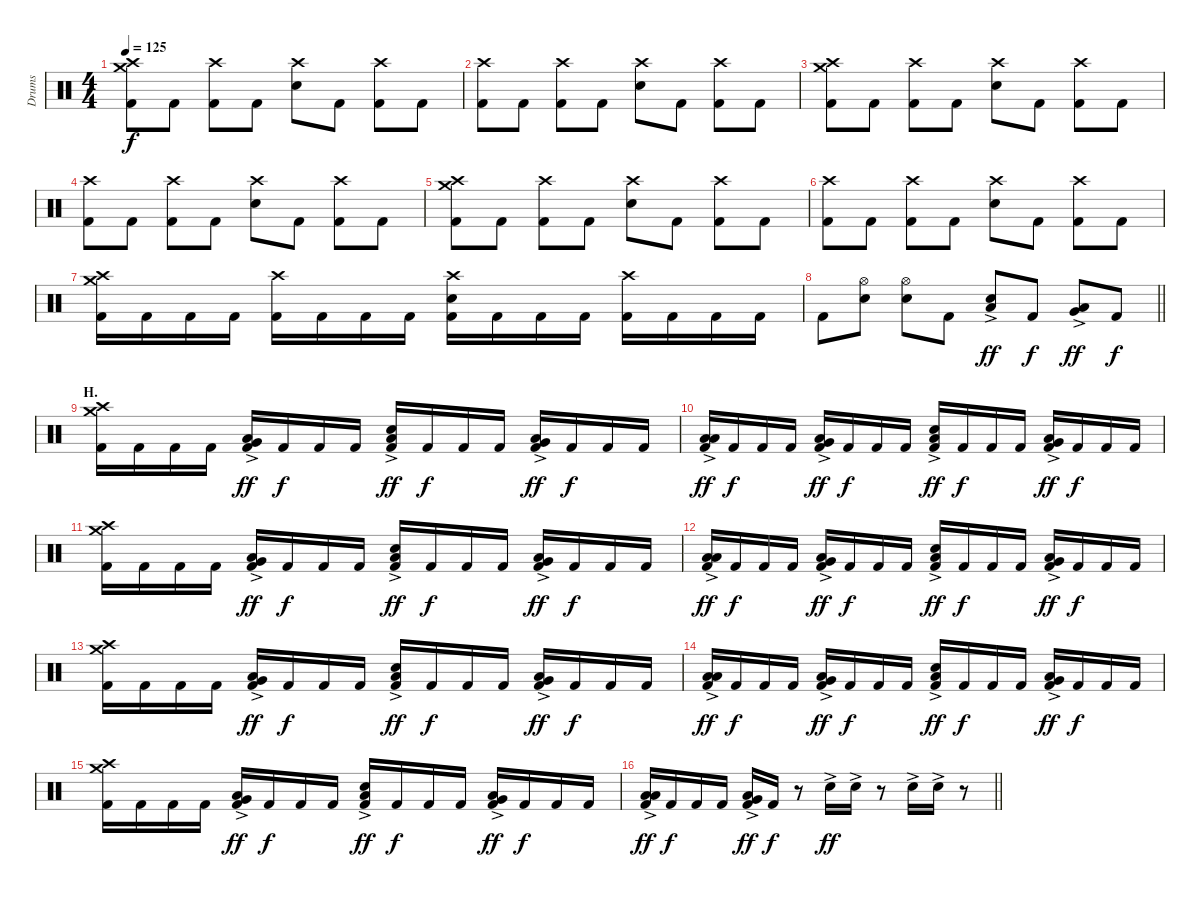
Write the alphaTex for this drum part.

\track ("Drums" "Drums") {instrument percussion}
\staff {score}
\articulation defaults
\ts (4 4)
\tempo 125
\clef neutral
\ks c
("Crash medium (hit)" "Crash high (hit)" "Kick (hit) 2").8{dy f} "Kick (hit) 2".8 ("Crash high (hit)" "Kick (hit) 2").8 "Kick (hit) 2".8 ("Crash high (hit)" "Electric Snare (hit)").8 "Kick (hit) 2".8 ("Crash high (hit)" "Kick (hit) 2").8 "Kick (hit) 2".8 |
("Crash high (hit)" "Kick (hit) 2").8 "Kick (hit) 2".8 ("Crash high (hit)" "Kick (hit) 2").8 "Kick (hit) 2".8 ("Crash high (hit)" "Electric Snare (hit)").8 "Kick (hit) 2".8 ("Crash high (hit)" "Kick (hit) 2").8 "Kick (hit) 2".8 |
("Crash medium (hit)" "Crash high (hit)" "Kick (hit) 2").8 "Kick (hit) 2".8 ("Crash high (hit)" "Kick (hit) 2").8 "Kick (hit) 2".8 ("Crash high (hit)" "Electric Snare (hit)").8 "Kick (hit) 2".8 ("Crash high (hit)" "Kick (hit) 2").8 "Kick (hit) 2".8 |
("Crash high (hit)" "Kick (hit) 2").8 "Kick (hit) 2".8 ("Crash high (hit)" "Kick (hit) 2").8 "Kick (hit) 2".8 ("Crash high (hit)" "Electric Snare (hit)").8 "Kick (hit) 2".8 ("Crash high (hit)" "Kick (hit) 2").8 "Kick (hit) 2".8 |
("Crash medium (hit)" "Crash high (hit)" "Kick (hit) 2").8 "Kick (hit) 2".8 ("Crash high (hit)" "Kick (hit) 2").8 "Kick (hit) 2".8 ("Crash high (hit)" "Electric Snare (hit)").8 "Kick (hit) 2".8 ("Crash high (hit)" "Kick (hit) 2").8 "Kick (hit) 2".8 |
("Crash high (hit)" "Kick (hit) 2").8 "Kick (hit) 2".8 ("Crash high (hit)" "Kick (hit) 2").8 "Kick (hit) 2".8 ("Crash high (hit)" "Electric Snare (hit)").8 "Kick (hit) 2".8 ("Crash high (hit)" "Kick (hit) 2").8 "Kick (hit) 2".8 |
("Crash medium (hit)" "Crash high (hit)" "Kick (hit) 2").16 "Kick (hit) 2".16 "Kick (hit) 2".16 "Kick (hit) 2".16 ("Crash high (hit)" "Kick (hit) 2").16 "Kick (hit) 2".16 "Kick (hit) 2".16 "Kick (hit) 2".16 ("Crash high (hit)" "Electric Snare (hit)" "Kick (hit) 2").16 "Kick (hit) 2".16 "Kick (hit) 2".16 "Kick (hit) 2".16 ("Crash high (hit)" "Kick (hit) 2").16 "Kick (hit) 2".16 "Kick (hit) 2".16 "Kick (hit) 2".16 |
\barLineRight lightlight "Kick (hit) 2".8
("Hi-Hat (open)" "Electric Snare (hit)").8 ("Hi-Hat (open)" "Electric Snare (hit)").8 "Kick (hit) 2".8 ("Electric Snare (hit)" "Low Floor Tom (hit)"{ac}).8{bu 120 dy ff} "Kick (hit) 2".8{dy f} ("Very Low Tom (hit)" "Low Floor Tom (hit)"{ac}).8{bu 120 dy ff} "Kick (hit) 2".8{dy f} |
\section ("" "H.")
("Crash medium (hit)" "Crash high (hit)" "Kick (hit) 2").16 "Kick (hit) 2".16 "Kick (hit) 2".16 "Kick (hit) 2".16 ("Very Low Tom (hit)" "Low Floor Tom (hit)"{ac} "Kick (hit) 2").16{dy ff} "Kick (hit) 2".16{dy f} "Kick (hit) 2".16 "Kick (hit) 2".16 ("Electric Snare (hit)" "Low Floor Tom (hit)"{ac} "Kick (hit) 2").16{dy ff} "Kick (hit) 2".16{dy f} "Kick (hit) 2".16 "Kick (hit) 2".16 ("Very Low Tom (hit)" "Low Floor Tom (hit)"{ac} "Kick (hit) 2").16{dy ff} "Kick (hit) 2".16{dy f} "Kick (hit) 2".16 "Kick (hit) 2".16 |
("Low Tom (hit)" "Low Floor Tom (hit)"{ac} "Kick (hit) 2").16{dy ff} "Kick (hit) 2".16{dy f} "Kick (hit) 2".16 "Kick (hit) 2".16 ("Very Low Tom (hit)" "Low Floor Tom (hit)"{ac} "Kick (hit) 2").16{dy ff} "Kick (hit) 2".16{dy f} "Kick (hit) 2".16 "Kick (hit) 2".16 ("Electric Snare (hit)" "Low Floor Tom (hit)"{ac} "Kick (hit) 2").16{dy ff} "Kick (hit) 2".16{dy f} "Kick (hit) 2".16 "Kick (hit) 2".16 ("Very Low Tom (hit)" "Low Floor Tom (hit)"{ac} "Kick (hit) 2").16{dy ff} "Kick (hit) 2".16{dy f} "Kick (hit) 2".16 "Kick (hit) 2".16 |
("Crash medium (hit)" "Crash high (hit)" "Kick (hit) 2").16 "Kick (hit) 2".16 "Kick (hit) 2".16 "Kick (hit) 2".16 ("Very Low Tom (hit)" "Low Floor Tom (hit)"{ac} "Kick (hit) 2").16{dy ff} "Kick (hit) 2".16{dy f} "Kick (hit) 2".16 "Kick (hit) 2".16 ("Electric Snare (hit)" "Low Floor Tom (hit)"{ac} "Kick (hit) 2").16{dy ff} "Kick (hit) 2".16{dy f} "Kick (hit) 2".16 "Kick (hit) 2".16 ("Very Low Tom (hit)" "Low Floor Tom (hit)"{ac} "Kick (hit) 2").16{dy ff} "Kick (hit) 2".16{dy f} "Kick (hit) 2".16 "Kick (hit) 2".16 |
("Low Tom (hit)" "Low Floor Tom (hit)"{ac} "Kick (hit) 2").16{dy ff} "Kick (hit) 2".16{dy f} "Kick (hit) 2".16 "Kick (hit) 2".16 ("Very Low Tom (hit)" "Low Floor Tom (hit)"{ac} "Kick (hit) 2").16{dy ff} "Kick (hit) 2".16{dy f} "Kick (hit) 2".16 "Kick (hit) 2".16 ("Electric Snare (hit)" "Low Floor Tom (hit)"{ac} "Kick (hit) 2").16{dy ff} "Kick (hit) 2".16{dy f} "Kick (hit) 2".16 "Kick (hit) 2".16 ("Very Low Tom (hit)" "Low Floor Tom (hit)"{ac} "Kick (hit) 2").16{dy ff} "Kick (hit) 2".16{dy f} "Kick (hit) 2".16 "Kick (hit) 2".16 |
("Crash medium (hit)" "Crash high (hit)" "Kick (hit) 2").16 "Kick (hit) 2".16 "Kick (hit) 2".16 "Kick (hit) 2".16 ("Very Low Tom (hit)" "Low Floor Tom (hit)"{ac} "Kick (hit) 2").16{dy ff} "Kick (hit) 2".16{dy f} "Kick (hit) 2".16 "Kick (hit) 2".16 ("Electric Snare (hit)" "Low Floor Tom (hit)"{ac} "Kick (hit) 2").16{dy ff} "Kick (hit) 2".16{dy f} "Kick (hit) 2".16 "Kick (hit) 2".16 ("Very Low Tom (hit)" "Low Floor Tom (hit)"{ac} "Kick (hit) 2").16{dy ff} "Kick (hit) 2".16{dy f} "Kick (hit) 2".16 "Kick (hit) 2".16 |
("Low Tom (hit)" "Low Floor Tom (hit)"{ac} "Kick (hit) 2").16{dy ff} "Kick (hit) 2".16{dy f} "Kick (hit) 2".16 "Kick (hit) 2".16 ("Very Low Tom (hit)" "Low Floor Tom (hit)"{ac} "Kick (hit) 2").16{dy ff} "Kick (hit) 2".16{dy f} "Kick (hit) 2".16 "Kick (hit) 2".16 ("Electric Snare (hit)" "Low Floor Tom (hit)"{ac} "Kick (hit) 2").16{dy ff} "Kick (hit) 2".16{dy f} "Kick (hit) 2".16 "Kick (hit) 2".16 ("Very Low Tom (hit)" "Low Floor Tom (hit)"{ac} "Kick (hit) 2").16{dy ff} "Kick (hit) 2".16{dy f} "Kick (hit) 2".16 "Kick (hit) 2".16 |
("Crash medium (hit)" "Crash high (hit)" "Kick (hit) 2").16 "Kick (hit) 2".16 "Kick (hit) 2".16 "Kick (hit) 2".16 ("Very Low Tom (hit)" "Low Floor Tom (hit)"{ac} "Kick (hit) 2").16{dy ff} "Kick (hit) 2".16{dy f} "Kick (hit) 2".16 "Kick (hit) 2".16 ("Electric Snare (hit)" "Low Floor Tom (hit)"{ac} "Kick (hit) 2").16{dy ff} "Kick (hit) 2".16{dy f} "Kick (hit) 2".16 "Kick (hit) 2".16 ("Very Low Tom (hit)" "Low Floor Tom (hit)"{ac} "Kick (hit) 2").16{dy ff} "Kick (hit) 2".16{dy f} "Kick (hit) 2".16 "Kick (hit) 2".16 |
\barLineRight lightlight
("Low Tom (hit)" "Low Floor Tom (hit)"{ac} "Kick (hit) 2").16{dy ff} "Kick (hit) 2".16{dy f} "Kick (hit) 2".16 "Kick (hit) 2".16 ("Very Low Tom (hit)" "Low Floor Tom (hit)"{ac} "Kick (hit) 2").16{dy ff} "Kick (hit) 2".16{dy f} r.8 "Electric Snare (hit)"{ac}.16{dy ff} "Electric Snare (hit)"{ac}.16 r.8 "Electric Snare (hit)"{ac}.16 "Electric Snare (hit)"{ac}.16 r.8
